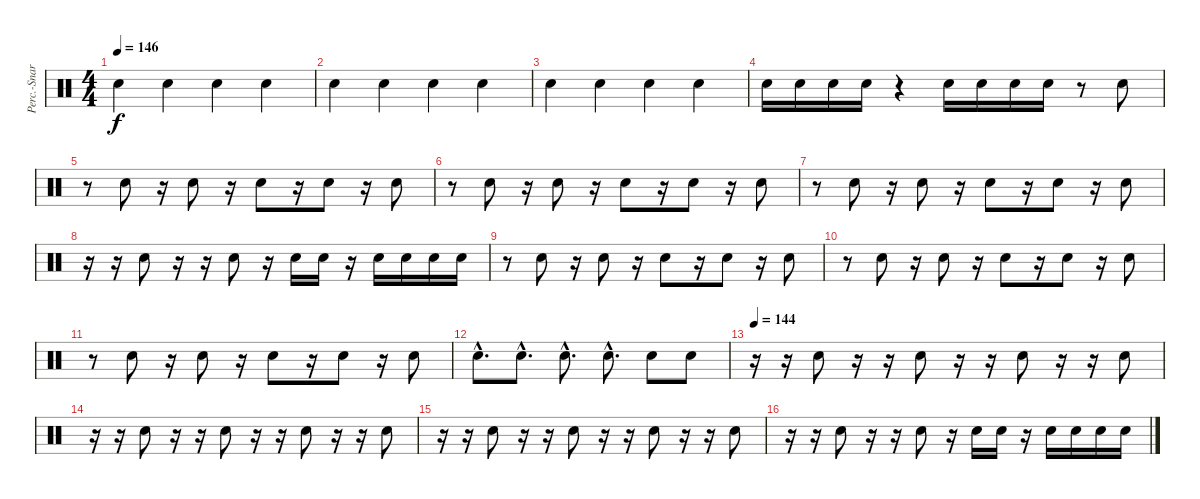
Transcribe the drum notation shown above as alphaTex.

\track ("Perc.-Snare" "Perc.-Snar") {instrument percussion}
\staff {score}
\articulation defaults
\ts (4 4)
\tempo 146
\clef neutral
\ks c "Snare (hit) 2".4{dy f} "Snare (hit) 2".4 "Snare (hit) 2".4 "Snare (hit) 2".4
|
"Snare (hit) 2".4 "Snare (hit) 2".4 "Snare (hit) 2".4 "Snare (hit) 2".4 |
"Snare (hit) 2".4 "Snare (hit) 2".4 "Snare (hit) 2".4 "Snare (hit) 2".4 |
"Snare (hit) 2".16 "Snare (hit) 2".16 "Snare (hit) 2".16 "Snare (hit) 2".16 r.4 "Snare (hit) 2".16 "Snare (hit) 2".16 "Snare (hit) 2".16 "Snare (hit) 2".16 r.8 "Snare (hit) 2".8 |
r.8 "Snare (hit) 2".8 r.16 "Snare (hit) 2".8 r.16 "Snare (hit) 2".8 r.16 "Snare (hit) 2".8 r.16 "Snare (hit) 2".8 |
r.8 "Snare (hit) 2".8 r.16 "Snare (hit) 2".8 r.16 "Snare (hit) 2".8 r.16 "Snare (hit) 2".8 r.16 "Snare (hit) 2".8 |
r.8 "Snare (hit) 2".8 r.16 "Snare (hit) 2".8 r.16 "Snare (hit) 2".8 r.16 "Snare (hit) 2".8 r.16 "Snare (hit) 2".8 |
r.16 r.16 "Snare (hit) 2".8 r.16 r.16 "Snare (hit) 2".8 r.16 "Snare (hit) 2".16 "Snare (hit) 2".16 r.16 "Snare (hit) 2".16 "Snare (hit) 2".16 "Snare (hit) 2".16 "Snare (hit) 2".16 |
r.8 "Snare (hit) 2".8 r.16 "Snare (hit) 2".8 r.16 "Snare (hit) 2".8 r.16 "Snare (hit) 2".8 r.16 "Snare (hit) 2".8 |
r.8 "Snare (hit) 2".8 r.16 "Snare (hit) 2".8 r.16 "Snare (hit) 2".8 r.16 "Snare (hit) 2".8 r.16 "Snare (hit) 2".8 |
r.8 "Snare (hit) 2".8 r.16 "Snare (hit) 2".8 r.16 "Snare (hit) 2".8 r.16 "Snare (hit) 2".8 r.16 "Snare (hit) 2".8 |
"Snare (hit) 2"{hac}.8{d} "Snare (hit) 2"{hac}.8{d} "Snare (hit) 2"{hac}.8{d} "Snare (hit) 2"{hac}.8{d} "Snare (hit) 2".8 "Snare (hit) 2".8 |
\tempo 144
r.16 r.16 "Snare (hit) 2".8 r.16 r.16 "Snare (hit) 2".8 r.16 r.16 "Snare (hit) 2".8 r.16 r.16 "Snare (hit) 2".8 |
r.16 r.16 "Snare (hit) 2".8 r.16 r.16 "Snare (hit) 2".8 r.16 r.16 "Snare (hit) 2".8 r.16 r.16 "Snare (hit) 2".8 |
r.16 r.16 "Snare (hit) 2".8 r.16 r.16 "Snare (hit) 2".8 r.16 r.16 "Snare (hit) 2".8 r.16 r.16 "Snare (hit) 2".8 |
r.16 r.16 "Snare (hit) 2".8 r.16 r.16 "Snare (hit) 2".8 r.16 "Snare (hit) 2".16 "Snare (hit) 2".16 r.16 "Snare (hit) 2".16 "Snare (hit) 2".16 "Snare (hit) 2".16 "Snare (hit) 2".16
